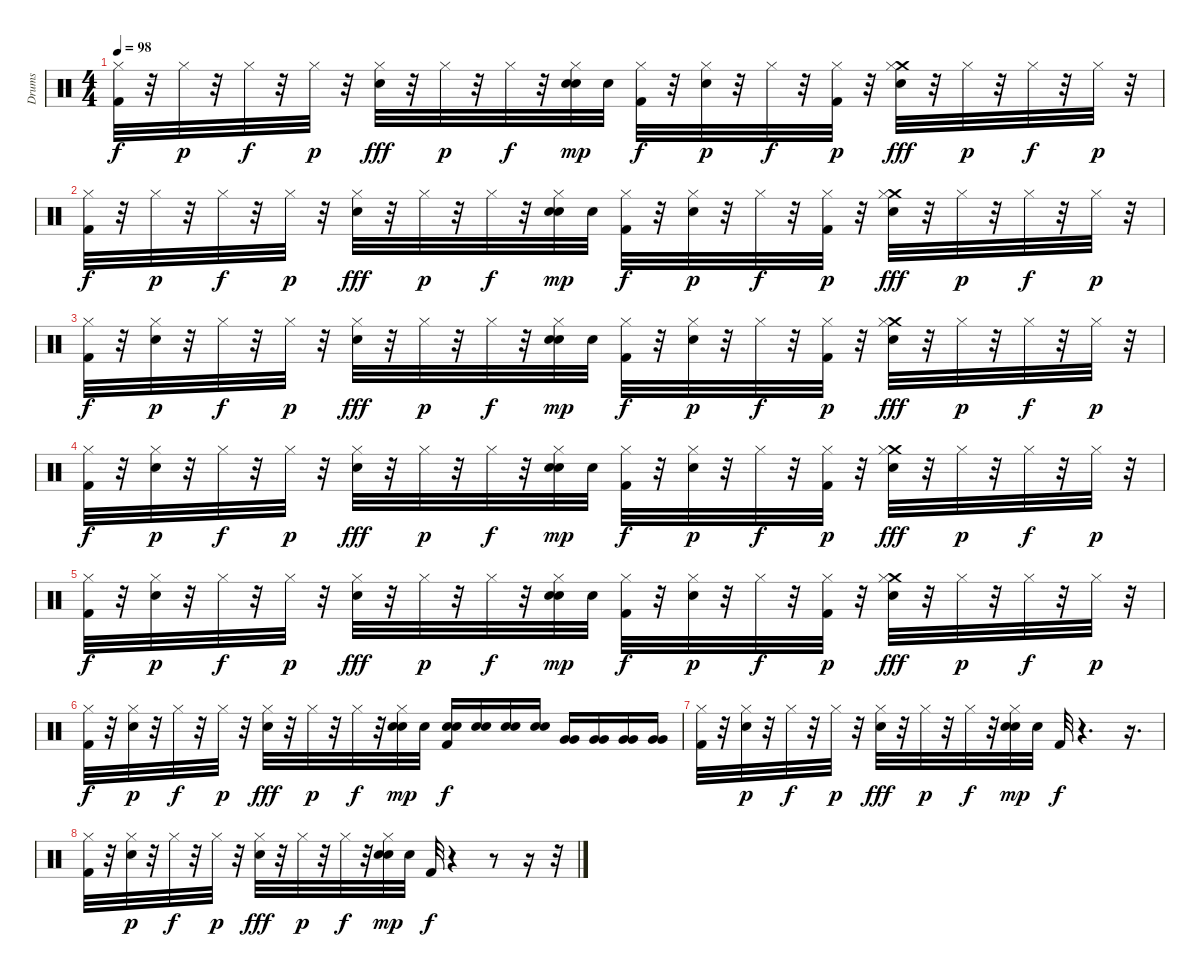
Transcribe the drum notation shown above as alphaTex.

\track ("Drums" "Drums") {instrument percussion}
\staff {score}
\articulation defaults
\ts (4 4)
\tempo 98
\clef neutral
\ks c
("Hi-Hat (closed)" "Kick (hit) 2").32{dy f} r.32 "Hi-Hat (closed)".32{dy p} r.32 "Hi-Hat (closed)".32{dy f} r.32 "Hi-Hat (closed)".32{dy p} r.32 ("Hi-Hat (closed)" "Electric Snare (hit)").32{dy fff} r.32 "Hi-Hat (closed)".32{dy p} r.32 "Hi-Hat (closed)".32{dy f} r.32 ("Hi-Hat (closed)" "Electric Snare (hit)" "Electric Snare (hit)").32{dy mp} "Electric Snare (hit)".32 ("Hi-Hat (closed)" "Kick (hit) 2").32{dy f} r.32 ("Hi-Hat (closed)" "Electric Snare (hit)").32{dy p} r.32 "Hi-Hat (closed)".32{dy f} r.32 ("Hi-Hat (closed)" "Kick (hit) 2").32{dy p} r.32 ("Crash medium (hit)" "Hi-Hat (closed)" "Electric Snare (hit)").32{dy fff} r.32 "Hi-Hat (closed)".32{dy p} r.32 "Hi-Hat (closed)".32{dy f} r.32 "Hi-Hat (closed)".32{dy p} r.32 |
("Hi-Hat (closed)" "Kick (hit) 2").32{dy f} r.32 "Hi-Hat (closed)".32{dy p} r.32 "Hi-Hat (closed)".32{dy f} r.32 "Hi-Hat (closed)".32{dy p} r.32 ("Hi-Hat (closed)" "Electric Snare (hit)").32{dy fff} r.32 "Hi-Hat (closed)".32{dy p} r.32 "Hi-Hat (closed)".32{dy f} r.32 ("Hi-Hat (closed)" "Electric Snare (hit)" "Electric Snare (hit)").32{dy mp} "Electric Snare (hit)".32 ("Hi-Hat (closed)" "Kick (hit) 2").32{dy f} r.32 ("Hi-Hat (closed)" "Electric Snare (hit)").32{dy p} r.32 "Hi-Hat (closed)".32{dy f} r.32 ("Hi-Hat (closed)" "Kick (hit) 2").32{dy p} r.32 ("Crash medium (hit)" "Hi-Hat (closed)" "Electric Snare (hit)").32{dy fff} r.32 "Hi-Hat (closed)".32{dy p} r.32 "Hi-Hat (closed)".32{dy f} r.32 "Hi-Hat (closed)".32{dy p} r.32 |
("Hi-Hat (closed)" "Kick (hit) 2").32{dy f} r.32 ("Hi-Hat (closed)" "Electric Snare (hit)").32{dy p} r.32 "Hi-Hat (closed)".32{dy f} r.32 "Hi-Hat (closed)".32{dy p} r.32 ("Hi-Hat (closed)" "Electric Snare (hit)").32{dy fff} r.32 "Hi-Hat (closed)".32{dy p} r.32 "Hi-Hat (closed)".32{dy f} r.32 ("Hi-Hat (closed)" "Electric Snare (hit)" "Electric Snare (hit)").32{dy mp} "Electric Snare (hit)".32 ("Hi-Hat (closed)" "Kick (hit) 2").32{dy f} r.32 ("Hi-Hat (closed)" "Electric Snare (hit)").32{dy p} r.32 "Hi-Hat (closed)".32{dy f} r.32 ("Hi-Hat (closed)" "Kick (hit) 2").32{dy p} r.32 ("Crash medium (hit)" "Hi-Hat (closed)" "Electric Snare (hit)").32{dy fff} r.32 "Hi-Hat (closed)".32{dy p} r.32 "Hi-Hat (closed)".32{dy f} r.32 "Hi-Hat (closed)".32{dy p} r.32 |
("Hi-Hat (closed)" "Kick (hit) 2").32{dy f} r.32 ("Hi-Hat (closed)" "Electric Snare (hit)").32{dy p} r.32 "Hi-Hat (closed)".32{dy f} r.32 "Hi-Hat (closed)".32{dy p} r.32 ("Hi-Hat (closed)" "Electric Snare (hit)").32{dy fff} r.32 "Hi-Hat (closed)".32{dy p} r.32 "Hi-Hat (closed)".32{dy f} r.32 ("Hi-Hat (closed)" "Electric Snare (hit)" "Electric Snare (hit)").32{dy mp} "Electric Snare (hit)".32 ("Hi-Hat (closed)" "Kick (hit) 2").32{dy f} r.32 ("Hi-Hat (closed)" "Electric Snare (hit)").32{dy p} r.32 "Hi-Hat (closed)".32{dy f} r.32 ("Hi-Hat (closed)" "Kick (hit) 2").32{dy p} r.32 ("Crash medium (hit)" "Hi-Hat (closed)" "Electric Snare (hit)").32{dy fff} r.32 "Hi-Hat (closed)".32{dy p} r.32 "Hi-Hat (closed)".32{dy f} r.32 "Hi-Hat (closed)".32{dy p} r.32 |
("Hi-Hat (closed)" "Kick (hit) 2").32{dy f} r.32 ("Hi-Hat (closed)" "Electric Snare (hit)").32{dy p} r.32 "Hi-Hat (closed)".32{dy f} r.32 "Hi-Hat (closed)".32{dy p} r.32 ("Hi-Hat (closed)" "Electric Snare (hit)").32{dy fff} r.32 "Hi-Hat (closed)".32{dy p} r.32 "Hi-Hat (closed)".32{dy f} r.32 ("Hi-Hat (closed)" "Electric Snare (hit)" "Electric Snare (hit)").32{dy mp} "Electric Snare (hit)".32 ("Hi-Hat (closed)" "Kick (hit) 2").32{dy f} r.32 ("Hi-Hat (closed)" "Electric Snare (hit)").32{dy p} r.32 "Hi-Hat (closed)".32{dy f} r.32 ("Hi-Hat (closed)" "Kick (hit) 2").32{dy p} r.32 ("Crash medium (hit)" "Hi-Hat (closed)" "Electric Snare (hit)").32{dy fff} r.32 "Hi-Hat (closed)".32{dy p} r.32 "Hi-Hat (closed)".32{dy f} r.32 "Hi-Hat (closed)".32{dy p} r.32 |
("Hi-Hat (closed)" "Kick (hit) 2").32{dy f} r.32 ("Hi-Hat (closed)" "Electric Snare (hit)").32{dy p} r.32 "Hi-Hat (closed)".32{dy f} r.32 "Hi-Hat (closed)".32{dy p} r.32 ("Hi-Hat (closed)" "Electric Snare (hit)").32{dy fff} r.32 "Hi-Hat (closed)".32{dy p} r.32 "Hi-Hat (closed)".32{dy f} r.32 ("Hi-Hat (closed)" "Electric Snare (hit)" "Electric Snare (hit)").32{dy mp} "Electric Snare (hit)".32 ("Snare (hit) 2" "Kick (hit) 2" "Snare (hit) 2").16{dy f} ("Snare (hit) 2" "Snare (hit) 2").16 ("Snare (hit) 2" "Snare (hit) 2").16 ("Snare (hit) 2" "Snare (hit) 2").16 ("Very Low Tom (hit)" "Very Low Tom (hit)").16 ("Very Low Tom (hit)" "Very Low Tom (hit)").16 ("Very Low Tom (hit)" "Very Low Tom (hit)").16 ("Very Low Tom (hit)" "Very Low Tom (hit)").16 |
("Hi-Hat (closed)" "Kick (hit) 2").32 r.32 ("Hi-Hat (closed)" "Electric Snare (hit)").32{dy p} r.32 "Hi-Hat (closed)".32{dy f} r.32 "Hi-Hat (closed)".32{dy p} r.32 ("Hi-Hat (closed)" "Electric Snare (hit)").32{dy fff} r.32 "Hi-Hat (closed)".32{dy p} r.32 "Hi-Hat (closed)".32{dy f} r.32 ("Hi-Hat (closed)" "Electric Snare (hit)" "Electric Snare (hit)").32{dy mp} "Electric Snare (hit)".32 "Kick (hit) 2".32{dy f} r.4{d} r.16{d} |
("Hi-Hat (closed)" "Kick (hit) 2").32 r.32 ("Hi-Hat (closed)" "Electric Snare (hit)").32{dy p} r.32 "Hi-Hat (closed)".32{dy f} r.32 "Hi-Hat (closed)".32{dy p} r.32 ("Hi-Hat (closed)" "Electric Snare (hit)").32{dy fff} r.32 "Hi-Hat (closed)".32{dy p} r.32 "Hi-Hat (closed)".32{dy f} r.32 ("Hi-Hat (closed)" "Electric Snare (hit)" "Electric Snare (hit)").32{dy mp} "Electric Snare (hit)".32 "Kick (hit) 2".32{dy f} r.4 r.8 r.16 r.32
